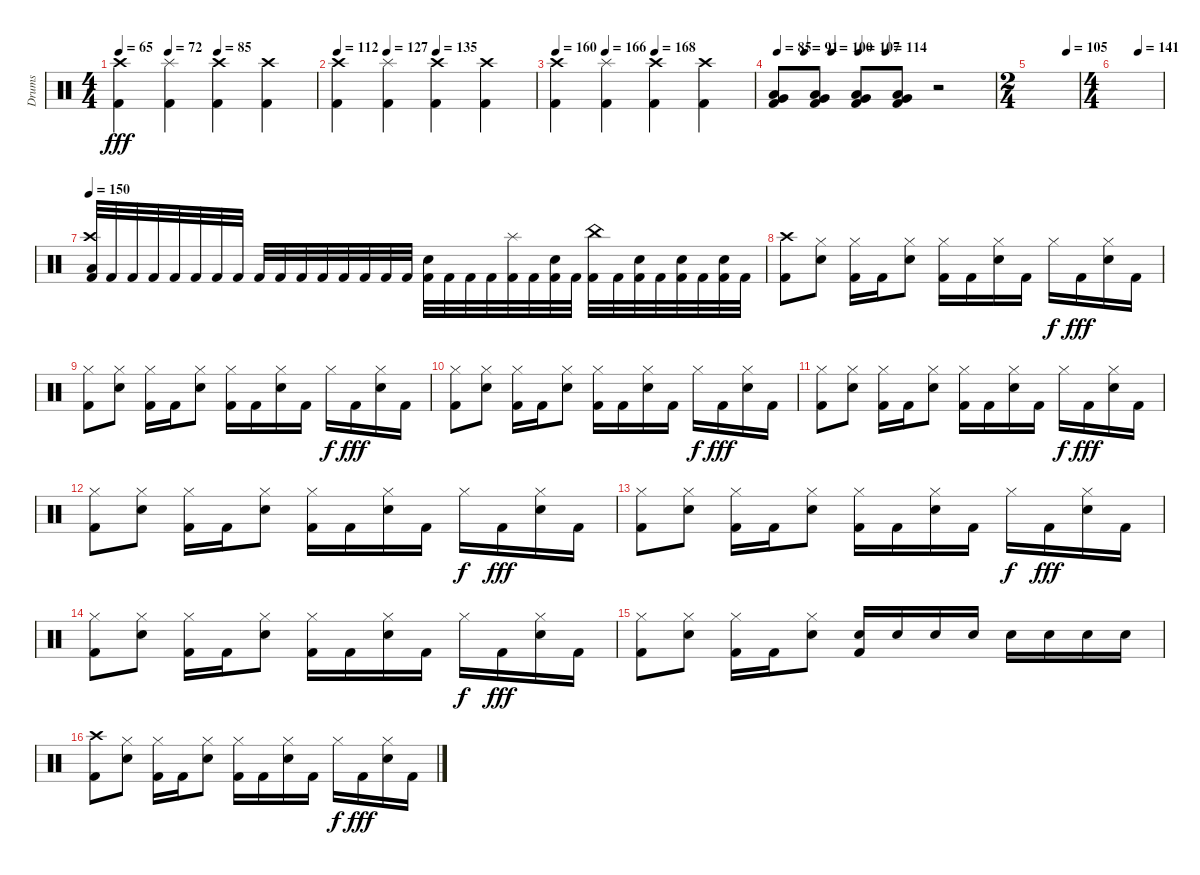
\track ("Drums" "Drums") {instrument percussion}
\staff {score}
\articulation defaults
\ts (4 4)
\tempo 65
\tempo (72 0.25)
\tempo (85 0.5)
\clef neutral
\ks c
("Kick (hit) 2" "Crash high (hit)").4{dy fff} ("Kick (hit) 2" "Splash (hit)").4 ("Kick (hit) 2" "Crash high (hit)").4 ("Kick (hit) 2" "Crash high (hit)").4 |
\tempo 112
\tempo (127 0.25)
\tempo (135 0.5)
("Kick (hit) 2" "Crash high (hit)").4 ("Kick (hit) 2" "Splash (hit)").4 ("Kick (hit) 2" "Crash high (hit)").4 ("Kick (hit) 2" "Crash high (hit)").4 |
\tempo 160
\tempo (166 0.25)
\tempo (168 0.5)
("Kick (hit) 2" "Crash high (hit)").4 ("Kick (hit) 2" "Splash (hit)").4 ("Kick (hit) 2" "Crash high (hit)").4 ("Kick (hit) 2" "Crash high (hit)").4 |
\tempo 85
\tempo (91 0.125)
\tempo (100 0.25)
\tempo (107 0.375)
\tempo (114 0.5)
("Kick (hit) 2" "Very Low Tom (hit)" "Low Floor Tom (hit)").8 ("Kick (hit) 2" "Very Low Tom (hit)" "Low Floor Tom (hit)").8 ("Kick (hit) 2" "Very Low Tom (hit)" "Low Floor Tom (hit)").8 ("Kick (hit) 2" "Very Low Tom (hit)" "Low Floor Tom (hit)").8 r.2 |
\ts (2 4)
\tempo (105 0.75)
|
\ts (4 4)
\tempo (141 0.5)
|
\tempo 150
("Kick (hit) 2" "Crash high (hit)" "Low Floor Tom (hit)").32 "Kick (hit) 2".32 "Kick (hit) 2".32 "Kick (hit) 2".32 "Kick (hit) 2".32 "Kick (hit) 2".32 "Kick (hit) 2".32 "Kick (hit) 2".32 "Kick (hit) 2".32 "Kick (hit) 2".32 "Kick (hit) 2".32 "Kick (hit) 2".32 "Kick (hit) 2".32 "Kick (hit) 2".32 "Kick (hit) 2".32 "Kick (hit) 2".32 ("Kick (hit) 2" "Snare (hit) 2").32 "Kick (hit) 2".32 "Kick (hit) 2".32 "Kick (hit) 2".32 ("Kick (hit) 2" "Splash (hit)").32 "Kick (hit) 2".32 ("Kick (hit) 2" "Snare (hit) 2").32 "Kick (hit) 2".32 ("Kick (hit) 2" "China (hit)").32 "Kick (hit) 2".32 ("Kick (hit) 2" "Snare (hit) 2").32 "Kick (hit) 2".32 ("Kick (hit) 2" "Snare (hit) 2").32 "Kick (hit) 2".32 ("Kick (hit) 2" "Snare (hit) 2").32 "Kick (hit) 2".32 |
("Kick (hit) 2" "Crash high (hit)").8 ("Hi-Hat (closed)" "Snare (hit) 2").8 ("Kick (hit) 2" "Hi-Hat (closed)").16 "Kick (hit) 2".16 ("Hi-Hat (closed)" "Snare (hit) 2").8 ("Kick (hit) 2" "Hi-Hat (closed)").16 "Kick (hit) 2".16 ("Hi-Hat (closed)" "Snare (hit) 2").16 "Kick (hit) 2".16 "Hi-Hat (closed)".16{dy f} "Kick (hit) 2".16{dy fff} ("Hi-Hat (closed)" "Snare (hit) 2").16 "Kick (hit) 2".16 |
("Kick (hit) 2" "Hi-Hat (closed)").8 ("Hi-Hat (closed)" "Snare (hit) 2").8 ("Kick (hit) 2" "Hi-Hat (closed)").16 "Kick (hit) 2".16 ("Hi-Hat (closed)" "Snare (hit) 2").8 ("Kick (hit) 2" "Hi-Hat (closed)").16 "Kick (hit) 2".16 ("Hi-Hat (closed)" "Snare (hit) 2").16 "Kick (hit) 2".16 "Hi-Hat (closed)".16{dy f} "Kick (hit) 2".16{dy fff} ("Hi-Hat (closed)" "Snare (hit) 2").16 "Kick (hit) 2".16 |
("Kick (hit) 2" "Hi-Hat (closed)").8 ("Hi-Hat (closed)" "Snare (hit) 2").8 ("Kick (hit) 2" "Hi-Hat (closed)").16 "Kick (hit) 2".16 ("Hi-Hat (closed)" "Snare (hit) 2").8 ("Kick (hit) 2" "Hi-Hat (closed)").16 "Kick (hit) 2".16 ("Hi-Hat (closed)" "Snare (hit) 2").16 "Kick (hit) 2".16 "Hi-Hat (closed)".16{dy f} "Kick (hit) 2".16{dy fff} ("Hi-Hat (closed)" "Snare (hit) 2").16 "Kick (hit) 2".16 |
("Kick (hit) 2" "Hi-Hat (closed)").8 ("Hi-Hat (closed)" "Snare (hit) 2").8 ("Kick (hit) 2" "Hi-Hat (closed)").16 "Kick (hit) 2".16 ("Hi-Hat (closed)" "Snare (hit) 2").8 ("Kick (hit) 2" "Hi-Hat (closed)").16 "Kick (hit) 2".16 ("Hi-Hat (closed)" "Snare (hit) 2").16 "Kick (hit) 2".16 "Hi-Hat (closed)".16{dy f} "Kick (hit) 2".16{dy fff} ("Hi-Hat (closed)" "Snare (hit) 2").16 "Kick (hit) 2".16 |
("Kick (hit) 2" "Hi-Hat (closed)").8 ("Hi-Hat (closed)" "Snare (hit) 2").8 ("Kick (hit) 2" "Hi-Hat (closed)").16 "Kick (hit) 2".16 ("Hi-Hat (closed)" "Snare (hit) 2").8 ("Kick (hit) 2" "Hi-Hat (closed)").16 "Kick (hit) 2".16 ("Hi-Hat (closed)" "Snare (hit) 2").16 "Kick (hit) 2".16 "Hi-Hat (closed)".16{dy f} "Kick (hit) 2".16{dy fff} ("Hi-Hat (closed)" "Snare (hit) 2").16 "Kick (hit) 2".16 |
("Kick (hit) 2" "Hi-Hat (closed)").8 ("Hi-Hat (closed)" "Snare (hit) 2").8 ("Kick (hit) 2" "Hi-Hat (closed)").16 "Kick (hit) 2".16 ("Hi-Hat (closed)" "Snare (hit) 2").8 ("Kick (hit) 2" "Hi-Hat (closed)").16 "Kick (hit) 2".16 ("Hi-Hat (closed)" "Snare (hit) 2").16 "Kick (hit) 2".16 "Hi-Hat (closed)".16{dy f} "Kick (hit) 2".16{dy fff} ("Hi-Hat (closed)" "Snare (hit) 2").16 "Kick (hit) 2".16 |
("Kick (hit) 2" "Hi-Hat (closed)").8 ("Hi-Hat (closed)" "Snare (hit) 2").8 ("Kick (hit) 2" "Hi-Hat (closed)").16 "Kick (hit) 2".16 ("Hi-Hat (closed)" "Snare (hit) 2").8 ("Kick (hit) 2" "Hi-Hat (closed)").16 "Kick (hit) 2".16 ("Hi-Hat (closed)" "Snare (hit) 2").16 "Kick (hit) 2".16 "Hi-Hat (closed)".16{dy f} "Kick (hit) 2".16{dy fff} ("Hi-Hat (closed)" "Snare (hit) 2").16 "Kick (hit) 2".16 |
("Kick (hit) 2" "Hi-Hat (closed)").8 ("Hi-Hat (closed)" "Snare (hit) 2").8 ("Kick (hit) 2" "Hi-Hat (closed)").16 "Kick (hit) 2".16 ("Hi-Hat (closed)" "Snare (hit) 2").8 ("Kick (hit) 2" "Snare (hit) 2").16 "Snare (hit) 2".16 "Snare (hit) 2".16 "Snare (hit) 2".16 "Snare (hit) 2".16 "Snare (hit) 2".16 "Snare (hit) 2".16 "Snare (hit) 2".16 |
("Kick (hit) 2" "Crash high (hit)").8 ("Hi-Hat (closed)" "Snare (hit) 2").8 ("Kick (hit) 2" "Hi-Hat (closed)").16 "Kick (hit) 2".16 ("Hi-Hat (closed)" "Snare (hit) 2").8 ("Kick (hit) 2" "Hi-Hat (closed)").16 "Kick (hit) 2".16 ("Hi-Hat (closed)" "Snare (hit) 2").16 "Kick (hit) 2".16 "Hi-Hat (closed)".16{dy f} "Kick (hit) 2".16{dy fff} ("Hi-Hat (closed)" "Snare (hit) 2").16 "Kick (hit) 2".16
